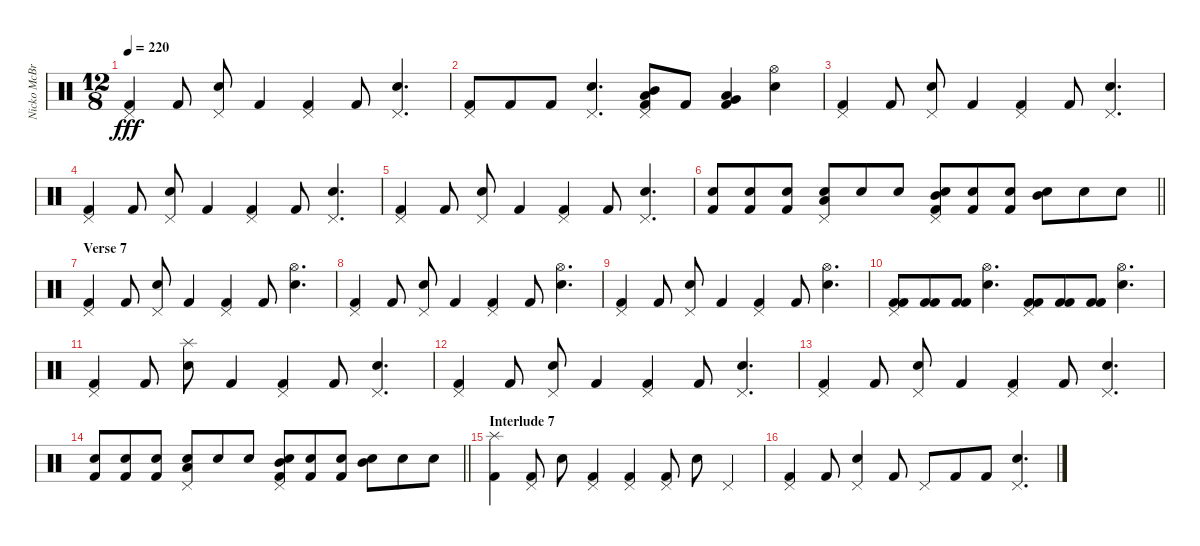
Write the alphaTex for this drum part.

\track ("Nicko McBrain" "Nicko McBr") {instrument percussion}
\staff {score}
\articulation defaults
\ts (12 8)
\tempo 220
\clef neutral
\ks c
("Pedal Hi-Hat (hit)" "Kick (hit) 2").4{dy fff} "Kick (hit) 2".8 ("Snare (hit) 2" "Pedal Hi-Hat (hit)").8 "Kick (hit) 2".4 ("Pedal Hi-Hat (hit)" "Kick (hit) 2").4 "Kick (hit) 2".8 ("Snare (hit) 2" "Pedal Hi-Hat (hit)").4{d} |
("Pedal Hi-Hat (hit)" "Kick (hit) 2").8 "Kick (hit) 2".8 "Kick (hit) 2".8 ("Snare (hit) 2" "Pedal Hi-Hat (hit)").4{d} ("Mid Tom (hit)" "Low Tom (hit)" "Pedal Hi-Hat (hit)" "Kick (hit) 2").8 "Kick (hit) 2".8 ("Very Low Tom (hit)" "Low Tom (hit)" "Kick (hit) 2").4 ("Snare (hit) 2" "Hi-Hat (open)").4 |
("Pedal Hi-Hat (hit)" "Kick (hit) 2").4 "Kick (hit) 2".8 ("Snare (hit) 2" "Pedal Hi-Hat (hit)").8 "Kick (hit) 2".4 ("Pedal Hi-Hat (hit)" "Kick (hit) 2").4 "Kick (hit) 2".8 ("Snare (hit) 2" "Pedal Hi-Hat (hit)").4{d} |
("Pedal Hi-Hat (hit)" "Kick (hit) 2").4 "Kick (hit) 2".8 ("Snare (hit) 2" "Pedal Hi-Hat (hit)").8 "Kick (hit) 2".4 ("Pedal Hi-Hat (hit)" "Kick (hit) 2").4 "Kick (hit) 2".8 ("Snare (hit) 2" "Pedal Hi-Hat (hit)").4{d} |
("Pedal Hi-Hat (hit)" "Kick (hit) 2").4 "Kick (hit) 2".8 ("Snare (hit) 2" "Pedal Hi-Hat (hit)").8 "Kick (hit) 2".4 ("Pedal Hi-Hat (hit)" "Kick (hit) 2").4 "Kick (hit) 2".8 ("Snare (hit) 2" "Pedal Hi-Hat (hit)").4{d} |
\barLineRight lightlight
("Snare (hit) 2" "Kick (hit) 2").8 ("Snare (hit) 2" "Kick (hit) 2").8 ("Snare (hit) 2" "Kick (hit) 2").8 ("Snare (hit) 2" "Low Tom (hit)" "Pedal Hi-Hat (hit)").8 "Snare (hit) 2".8 "Snare (hit) 2".8 ("Mid Tom (hit)" "Snare (hit) 2" "Pedal Hi-Hat (hit)" "Kick (hit) 2").8 ("Snare (hit) 2" "Kick (hit) 2").8 ("Snare (hit) 2" "Kick (hit) 2").8 ("Mid Tom (hit)" "Snare (hit) 2").8 "Snare (hit) 2".8 "Snare (hit) 2".8 |
\section ("" "Verse 7")
("Pedal Hi-Hat (hit)" "Kick (hit) 2").4 "Kick (hit) 2".8 ("Snare (hit) 2" "Pedal Hi-Hat (hit)").8 "Kick (hit) 2".4 ("Pedal Hi-Hat (hit)" "Kick (hit) 2").4 "Kick (hit) 2".8 ("Snare (hit) 2" "Hi-Hat (open)").4{d} |
("Pedal Hi-Hat (hit)" "Kick (hit) 2").4 "Kick (hit) 2".8 ("Snare (hit) 2" "Pedal Hi-Hat (hit)").8 "Kick (hit) 2".4 ("Pedal Hi-Hat (hit)" "Kick (hit) 2").4 "Kick (hit) 2".8 ("Snare (hit) 2" "Hi-Hat (open)").4{d} |
("Pedal Hi-Hat (hit)" "Kick (hit) 2").4 "Kick (hit) 2".8 ("Snare (hit) 2" "Pedal Hi-Hat (hit)").8 "Kick (hit) 2".4 ("Pedal Hi-Hat (hit)" "Kick (hit) 2").4 "Kick (hit) 2".8 ("Snare (hit) 2" "Hi-Hat (open)").4{d} |
("Pedal Hi-Hat (hit)" "Kick (hit) 2" "Kick (hit) 2").8 ("Kick (hit) 2" "Kick (hit) 2").8 ("Kick (hit) 2" "Kick (hit) 2").8 ("Snare (hit) 2" "Hi-Hat (open)").4{d} ("Pedal Hi-Hat (hit)" "Kick (hit) 2" "Kick (hit) 2").8 ("Kick (hit) 2" "Kick (hit) 2").8 ("Kick (hit) 2" "Kick (hit) 2").8 ("Snare (hit) 2" "Hi-Hat (open)").4{d} |
("Pedal Hi-Hat (hit)" "Kick (hit) 2").4 "Kick (hit) 2".8 ("Snare (hit) 2" "Splash (hit)").8 "Kick (hit) 2".4 ("Pedal Hi-Hat (hit)" "Kick (hit) 2").4 "Kick (hit) 2".8 ("Snare (hit) 2" "Pedal Hi-Hat (hit)").4{d} |
("Pedal Hi-Hat (hit)" "Kick (hit) 2").4 "Kick (hit) 2".8 ("Snare (hit) 2" "Pedal Hi-Hat (hit)").8 "Kick (hit) 2".4 ("Pedal Hi-Hat (hit)" "Kick (hit) 2").4 "Kick (hit) 2".8 ("Snare (hit) 2" "Pedal Hi-Hat (hit)").4{d} |
("Pedal Hi-Hat (hit)" "Kick (hit) 2").4 "Kick (hit) 2".8 ("Snare (hit) 2" "Pedal Hi-Hat (hit)").8 "Kick (hit) 2".4 ("Pedal Hi-Hat (hit)" "Kick (hit) 2").4 "Kick (hit) 2".8 ("Snare (hit) 2" "Pedal Hi-Hat (hit)").4{d} |
\barLineRight lightlight
("Snare (hit) 2" "Kick (hit) 2").8 ("Snare (hit) 2" "Kick (hit) 2").8 ("Snare (hit) 2" "Kick (hit) 2").8 ("Snare (hit) 2" "Low Tom (hit)" "Pedal Hi-Hat (hit)").8 "Snare (hit) 2".8 "Snare (hit) 2".8 ("Mid Tom (hit)" "Snare (hit) 2" "Pedal Hi-Hat (hit)" "Kick (hit) 2").8 ("Snare (hit) 2" "Kick (hit) 2").8 ("Snare (hit) 2" "Kick (hit) 2").8 ("Mid Tom (hit)" "Snare (hit) 2").8 "Snare (hit) 2".8 "Snare (hit) 2".8 |
\section ("" "Interlude 7")
("Splash (hit)" "Kick (hit) 2").4 ("Pedal Hi-Hat (hit)" "Kick (hit) 2").8 "Snare (hit) 2".8 ("Pedal Hi-Hat (hit)" "Kick (hit) 2").4 ("Pedal Hi-Hat (hit)" "Kick (hit) 2").4 ("Pedal Hi-Hat (hit)" "Kick (hit) 2").8 "Snare (hit) 2".8 "Pedal Hi-Hat (hit)".4 |
("Pedal Hi-Hat (hit)" "Kick (hit) 2").4 "Kick (hit) 2".8 ("Snare (hit) 2" "Pedal Hi-Hat (hit)").4 "Kick (hit) 2".8 "Pedal Hi-Hat (hit)".8 "Kick (hit) 2".8 "Kick (hit) 2".8 ("Snare (hit) 2" "Pedal Hi-Hat (hit)").4{d}
